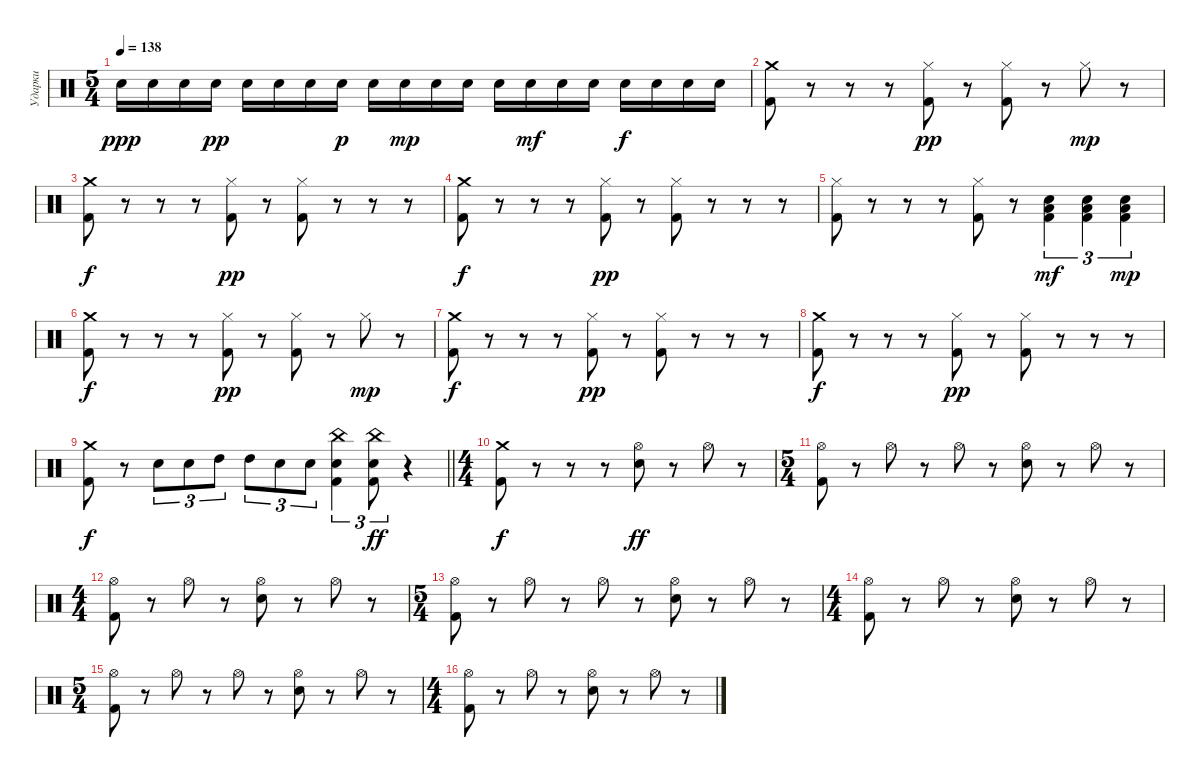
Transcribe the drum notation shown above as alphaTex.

\track ("Ударки" "Ударки") {instrument percussion}
\staff {score}
\articulation defaults
\ts (5 4)
\tempo 138
\clef neutral
\ks c "Snare (hit) 2".16{dy ppp} "Snare (hit) 2".16 "Snare (hit) 2".16 "Snare (hit) 2".16{dy pp} "Snare (hit) 2".16 "Snare (hit) 2".16 "Snare (hit) 2".16 "Snare (hit) 2".16{dy p} "Snare (hit) 2".16 "Snare (hit) 2".16{dy mp} "Snare (hit) 2".16 "Snare (hit) 2".16 "Snare (hit) 2".16 "Snare (hit) 2".16{dy mf} "Snare (hit) 2".16 "Snare (hit) 2".16 "Snare (hit) 2".16{dy f} "Snare (hit) 2".16 "Snare (hit) 2".16 "Snare (hit) 2".16
|
("Crash medium (hit)" "Kick (hit) 2").8 r.8 r.8 r.8 ("Hi-Hat (closed)" "Kick (hit) 2").8{dy pp} r.8 ("Hi-Hat (closed)" "Kick (hit) 2").8 r.8 "Hi-Hat (closed)".8{dy mp} r.8 |
("Crash medium (hit)" "Kick (hit) 2").8{dy f} r.8 r.8 r.8 ("Hi-Hat (closed)" "Kick (hit) 2").8{dy pp} r.8 ("Hi-Hat (closed)" "Kick (hit) 2").8 r.8 r.8 r.8 |
("Crash medium (hit)" "Kick (hit) 2").8{dy f} r.8 r.8 r.8 ("Hi-Hat (closed)" "Kick (hit) 2").8{dy pp} r.8 ("Hi-Hat (closed)" "Kick (hit) 2").8 r.8 r.8 r.8 |
("Hi-Hat (closed)" "Kick (hit) 2").8 r.8 r.8 r.8 ("Hi-Hat (closed)" "Kick (hit) 2").8 r.8 ("Low Tom (hit)" "Snare (hit) 2" "Kick (hit) 2").4{tu (3 2) dy mf} ("Low Tom (hit)" "Snare (hit) 2" "Kick (hit) 2").4{tu (3 2)} ("Low Tom (hit)" "Snare (hit) 2" "Kick (hit) 2").4{tu (3 2) dy mp} |
("Crash medium (hit)" "Kick (hit) 2").8{dy f} r.8 r.8 r.8 ("Hi-Hat (closed)" "Kick (hit) 2").8{dy pp} r.8 ("Hi-Hat (closed)" "Kick (hit) 2").8 r.8 "Hi-Hat (closed)".8{dy mp} r.8 |
("Crash medium (hit)" "Kick (hit) 2").8{dy f} r.8 r.8 r.8 ("Hi-Hat (closed)" "Kick (hit) 2").8{dy pp} r.8 ("Hi-Hat (closed)" "Kick (hit) 2").8 r.8 r.8 r.8 |
("Crash medium (hit)" "Kick (hit) 2").8{dy f} r.8 r.8 r.8 ("Hi-Hat (closed)" "Kick (hit) 2").8{dy pp} r.8 ("Hi-Hat (closed)" "Kick (hit) 2").8 r.8 r.8 r.8 |
\barLineRight lightlight
("Crash medium (hit)" "Kick (hit) 2").8{dy f} r.8 "Snare (hit) 2".8{tu (3 2)} "Snare (hit) 2".8{tu (3 2)} "High Tom (hit)".8{tu (3 2)} "High Tom (hit)".8{tu (3 2)} "Snare (hit) 2".8{tu (3 2)} "Snare (hit) 2".8{tu (3 2)} ("Kick (hit) 2" "Snare (hit) 2" "China (hit)").4{tu (3 2)} ("Kick (hit) 2" "Snare (hit) 2" "China (hit)").8{tu (3 2) dy ff} r.4 |
\ts (4 4)
\section ("" "")
("Kick (hit) 2" "Crash medium (hit)").8{dy f} r.8 r.8 r.8 ("Snare (hit) 2" "Hi-Hat (open)").8{dy ff} r.8 "Hi-Hat (open)".8 r.8 |
\ts (5 4)
("Kick (hit) 2" "Hi-Hat (open)").8 r.8 "Hi-Hat (open)".8 r.8 "Hi-Hat (open)".8 r.8 ("Snare (hit) 2" "Hi-Hat (open)").8 r.8 "Hi-Hat (open)".8 r.8 |
\ts (4 4)
("Kick (hit) 2" "Hi-Hat (open)").8 r.8 "Hi-Hat (open)".8 r.8 ("Snare (hit) 2" "Hi-Hat (open)").8 r.8 "Hi-Hat (open)".8 r.8 |
\ts (5 4)
("Kick (hit) 2" "Hi-Hat (open)").8 r.8 "Hi-Hat (open)".8 r.8 "Hi-Hat (open)".8 r.8 ("Snare (hit) 2" "Hi-Hat (open)").8 r.8 "Hi-Hat (open)".8 r.8 |
\ts (4 4)
("Kick (hit) 2" "Hi-Hat (open)").8 r.8 "Hi-Hat (open)".8 r.8 ("Snare (hit) 2" "Hi-Hat (open)").8 r.8 "Hi-Hat (open)".8 r.8 |
\ts (5 4)
("Kick (hit) 2" "Hi-Hat (open)").8 r.8 "Hi-Hat (open)".8 r.8 "Hi-Hat (open)".8 r.8 ("Snare (hit) 2" "Hi-Hat (open)").8 r.8 "Hi-Hat (open)".8 r.8 |
\ts (4 4)
("Kick (hit) 2" "Hi-Hat (open)").8 r.8 "Hi-Hat (open)".8 r.8 ("Snare (hit) 2" "Hi-Hat (open)").8 r.8 "Hi-Hat (open)".8 r.8
